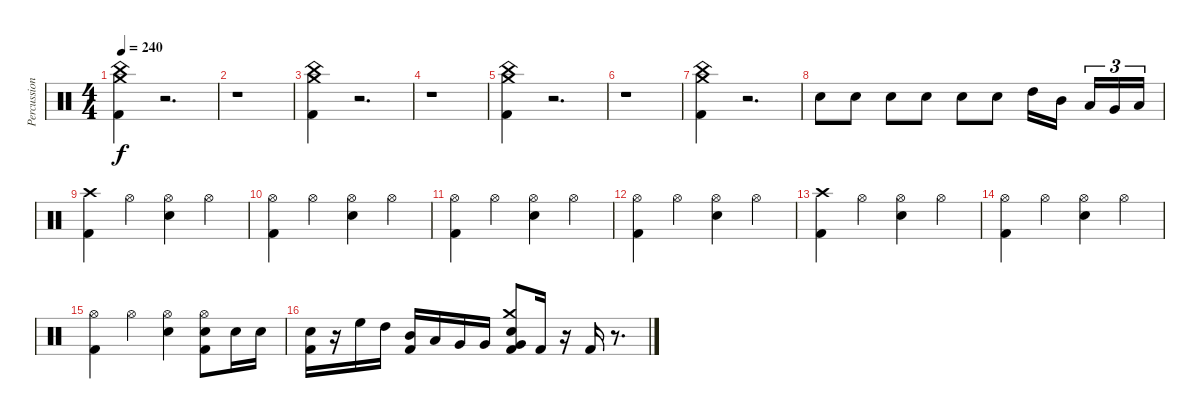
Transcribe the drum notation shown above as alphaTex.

\track ("Percussion" "Percussion") {instrument percussion}
\staff {score}
\articulation defaults
\ts (4 4)
\tempo 240
\clef neutral
\ks c
("Kick (hit) 2" "China (hit)" "Crash medium (hit)").4{dy f} r.2{d} |
r.1 |
("Kick (hit) 2" "China (hit)" "Crash medium (hit)").4 r.2{d} |
r.1 |
("Kick (hit) 2" "China (hit)" "Crash medium (hit)").4 r.2{d} |
r.1 |
("Kick (hit) 2" "China (hit)" "Crash medium (hit)").4 r.2{d} |
"Electric Snare (hit)".8 "Electric Snare (hit)".8 "Electric Snare (hit)".8 "Electric Snare (hit)".8 "Electric Snare (hit)".8 "Electric Snare (hit)".8 "High Tom (hit)".16 "Mid Tom (hit)".16 "Low Tom (hit)".16{tu (3 2)} "Very Low Tom (hit)".16{tu (3 2)} "Low Floor Tom (hit)".16{tu (3 2)} |
("Kick (hit) 2" "Crash high (hit)").4 "Hi-Hat (open)".4 ("Electric Snare (hit)" "Hi-Hat (open)").4 "Hi-Hat (open)".4 |
("Kick (hit) 2" "Hi-Hat (open)").4 "Hi-Hat (open)".4 ("Electric Snare (hit)" "Hi-Hat (open)").4 "Hi-Hat (open)".4 |
("Kick (hit) 2" "Hi-Hat (open)").4 "Hi-Hat (open)".4 ("Electric Snare (hit)" "Hi-Hat (open)").4 "Hi-Hat (open)".4 |
("Kick (hit) 2" "Hi-Hat (open)").4 "Hi-Hat (open)".4 ("Electric Snare (hit)" "Hi-Hat (open)").4 "Hi-Hat (open)".4 |
("Kick (hit) 2" "Crash high (hit)").4 "Hi-Hat (open)".4 ("Electric Snare (hit)" "Hi-Hat (open)").4 "Hi-Hat (open)".4 |
("Kick (hit) 2" "Hi-Hat (open)").4 "Hi-Hat (open)".4 ("Electric Snare (hit)" "Hi-Hat (open)").4 "Hi-Hat (open)".4 |
("Kick (hit) 2" "Hi-Hat (open)").4 "Hi-Hat (open)".4 ("Electric Snare (hit)" "Hi-Hat (open)").4 ("Kick (hit) 2" "Electric Snare (hit)" "Hi-Hat (open)").8 "Electric Snare (hit)".16 "Electric Snare (hit)".16 |
("Kick (hit) 2" "Electric Snare (hit)").16 r.16 "High Floor Tom (hit)".16 "High Tom (hit)".16 ("Kick (hit) 2" "Mid Tom (hit)").16 "Low Tom (hit)".16 "Very Low Tom (hit)".16 "Very Low Tom (hit)".16 ("Kick (hit) 2" "Electric Snare (hit)" "Very Low Tom (hit)" "Crash medium (hit)").8 "Kick (hit) 2".16 r.16 "Kick (hit) 2".16 r.8{d}
